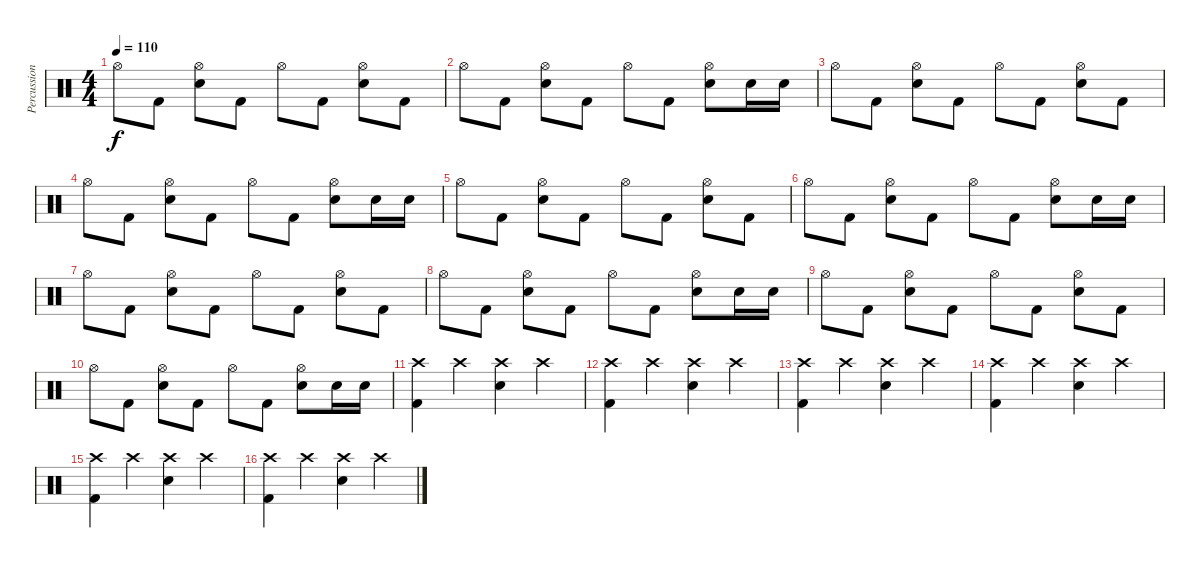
\track ("Percussion" "Percussion") {instrument percussion}
\staff {score}
\articulation defaults
\ts (4 4)
\tempo 110
\clef neutral
\ks c "Hi-Hat (open)".8{dy f} "Kick (hit) 2".8
("Electric Snare (hit)" "Hi-Hat (open)").8 "Kick (hit) 2".8 "Hi-Hat (open)".8 "Kick (hit) 2".8 ("Electric Snare (hit)" "Hi-Hat (open)").8 "Kick (hit) 2".8 |
"Hi-Hat (open)".8 "Kick (hit) 2".8 ("Electric Snare (hit)" "Hi-Hat (open)").8 "Kick (hit) 2".8 "Hi-Hat (open)".8 "Kick (hit) 2".8 ("Electric Snare (hit)" "Hi-Hat (open)").8 "Electric Snare (hit)".16 "Electric Snare (hit)".16 |
"Hi-Hat (open)".8 "Kick (hit) 2".8 ("Electric Snare (hit)" "Hi-Hat (open)").8 "Kick (hit) 2".8 "Hi-Hat (open)".8 "Kick (hit) 2".8 ("Electric Snare (hit)" "Hi-Hat (open)").8 "Kick (hit) 2".8 |
"Hi-Hat (open)".8 "Kick (hit) 2".8 ("Electric Snare (hit)" "Hi-Hat (open)").8 "Kick (hit) 2".8 "Hi-Hat (open)".8 "Kick (hit) 2".8 ("Electric Snare (hit)" "Hi-Hat (open)").8 "Electric Snare (hit)".16 "Electric Snare (hit)".16 |
"Hi-Hat (open)".8 "Kick (hit) 2".8 ("Electric Snare (hit)" "Hi-Hat (open)").8 "Kick (hit) 2".8 "Hi-Hat (open)".8 "Kick (hit) 2".8 ("Electric Snare (hit)" "Hi-Hat (open)").8 "Kick (hit) 2".8 |
"Hi-Hat (open)".8 "Kick (hit) 2".8 ("Electric Snare (hit)" "Hi-Hat (open)").8 "Kick (hit) 2".8 "Hi-Hat (open)".8 "Kick (hit) 2".8 ("Electric Snare (hit)" "Hi-Hat (open)").8 "Electric Snare (hit)".16 "Electric Snare (hit)".16 |
"Hi-Hat (open)".8 "Kick (hit) 2".8 ("Electric Snare (hit)" "Hi-Hat (open)").8 "Kick (hit) 2".8 "Hi-Hat (open)".8 "Kick (hit) 2".8 ("Electric Snare (hit)" "Hi-Hat (open)").8 "Kick (hit) 2".8 |
"Hi-Hat (open)".8 "Kick (hit) 2".8 ("Electric Snare (hit)" "Hi-Hat (open)").8 "Kick (hit) 2".8 "Hi-Hat (open)".8 "Kick (hit) 2".8 ("Electric Snare (hit)" "Hi-Hat (open)").8 "Electric Snare (hit)".16 "Electric Snare (hit)".16 |
"Hi-Hat (open)".8 "Kick (hit) 2".8 ("Electric Snare (hit)" "Hi-Hat (open)").8 "Kick (hit) 2".8 "Hi-Hat (open)".8 "Kick (hit) 2".8 ("Electric Snare (hit)" "Hi-Hat (open)").8 "Kick (hit) 2".8 |
"Hi-Hat (open)".8 "Kick (hit) 2".8 ("Electric Snare (hit)" "Hi-Hat (open)").8 "Kick (hit) 2".8 "Hi-Hat (open)".8 "Kick (hit) 2".8 ("Electric Snare (hit)" "Hi-Hat (open)").8 "Electric Snare (hit)".16 "Electric Snare (hit)".16 |
("Crash high (hit)" "Kick (hit) 2").4 "Crash high (hit)".4 ("Crash high (hit)" "Electric Snare (hit)").4 "Crash high (hit)".4 |
("Crash high (hit)" "Kick (hit) 2").4 "Crash high (hit)".4 ("Crash high (hit)" "Electric Snare (hit)").4 "Crash high (hit)".4 |
("Crash high (hit)" "Kick (hit) 2").4 "Crash high (hit)".4 ("Crash high (hit)" "Electric Snare (hit)").4 "Crash high (hit)".4 |
("Crash high (hit)" "Kick (hit) 2").4 "Crash high (hit)".4 ("Crash high (hit)" "Electric Snare (hit)").4 "Crash high (hit)".4 |
("Crash high (hit)" "Kick (hit) 2").4 "Crash high (hit)".4 ("Crash high (hit)" "Electric Snare (hit)").4 "Crash high (hit)".4 |
("Crash high (hit)" "Kick (hit) 2").4 "Crash high (hit)".4 ("Crash high (hit)" "Electric Snare (hit)").4 "Crash high (hit)".4
